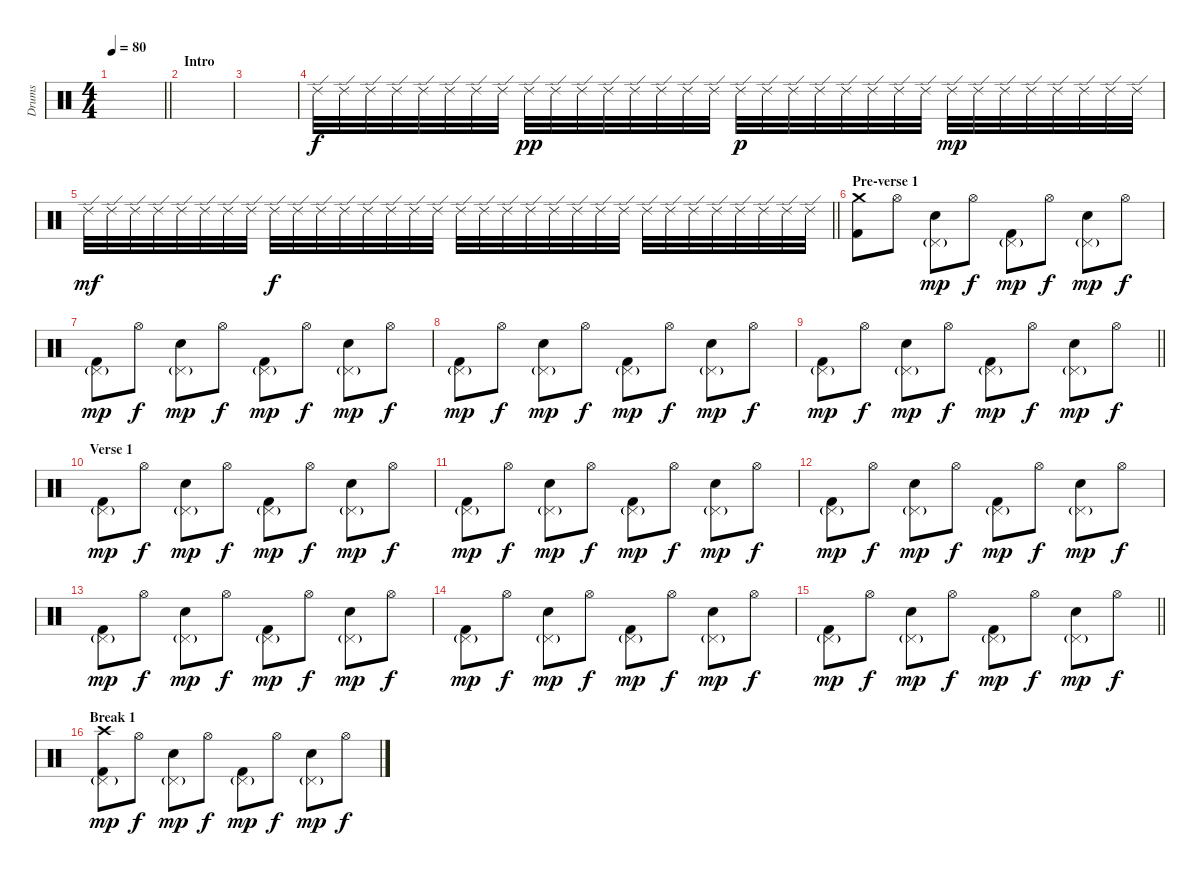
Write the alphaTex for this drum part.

\track ("Drums" "Drums") {solo instrument percussion}
\staff {score}
\articulation defaults
\ts (4 4)
\tempo 80
\clef neutral
\barLineRight lightlight
\ks c
|
\section ("" "Intro")
|
|
"Ride (edge) 2".32 "Ride (edge) 2".32 "Ride (edge) 2".32 "Ride (edge) 2".32 "Ride (edge) 2".32 "Ride (edge) 2".32 "Ride (edge) 2".32 "Ride (edge) 2".32 "Ride (edge) 2".32{dy pp} "Ride (edge) 2".32 "Ride (edge) 2".32 "Ride (edge) 2".32 "Ride (edge) 2".32 "Ride (edge) 2".32 "Ride (edge) 2".32 "Ride (edge) 2".32 "Ride (edge) 2".32{dy p} "Ride (edge) 2".32 "Ride (edge) 2".32 "Ride (edge) 2".32 "Ride (edge) 2".32 "Ride (edge) 2".32 "Ride (edge) 2".32 "Ride (edge) 2".32 "Ride (edge) 2".32{dy mp} "Ride (edge) 2".32 "Ride (edge) 2".32 "Ride (edge) 2".32 "Ride (edge) 2".32 "Ride (edge) 2".32 "Ride (edge) 2".32 "Ride (edge) 2".32 |
\barLineRight lightlight "Ride (edge) 2".32{dy mf} "Ride (edge) 2".32 "Ride (edge) 2".32 "Ride (edge) 2".32 "Ride (edge) 2".32 "Ride (edge) 2".32 "Ride (edge) 2".32 "Ride (edge) 2".32 "Ride (edge) 2".32{dy f} "Ride (edge) 2".32 "Ride (edge) 2".32 "Ride (edge) 2".32 "Ride (edge) 2".32 "Ride (edge) 2".32 "Ride (edge) 2".32 "Ride (edge) 2".32 "Ride (edge) 2".32 "Ride (edge) 2".32 "Ride (edge) 2".32 "Ride (edge) 2".32 "Ride (edge) 2".32 "Ride (edge) 2".32 "Ride (edge) 2".32 "Ride (edge) 2".32 "Ride (edge) 2".32 "Ride (edge) 2".32 "Ride (edge) 2".32 "Ride (edge) 2".32 "Ride (edge) 2".32 "Ride (edge) 2".32 "Ride (edge) 2".32 "Ride (edge) 2".32
|
\section ("" "Pre-verse 1")
("Crash medium (hit)" "Kick (hit) 2").8 "Hi-Hat (open)".8 ("Pedal Hi-Hat (hit)"{g} "Electric Snare (hit)").8{dy mp} "Hi-Hat (open)".8{dy f} ("Pedal Hi-Hat (hit)"{g} "Kick (hit) 2").8{dy mp} "Hi-Hat (open)".8{dy f} ("Pedal Hi-Hat (hit)"{g} "Electric Snare (hit)").8{dy mp} "Hi-Hat (open)".8{dy f} |
("Pedal Hi-Hat (hit)"{g} "Kick (hit) 2").8{dy mp} "Hi-Hat (open)".8{dy f} ("Pedal Hi-Hat (hit)"{g} "Electric Snare (hit)").8{dy mp} "Hi-Hat (open)".8{dy f} ("Pedal Hi-Hat (hit)"{g} "Kick (hit) 2").8{dy mp} "Hi-Hat (open)".8{dy f} ("Pedal Hi-Hat (hit)"{g} "Electric Snare (hit)").8{dy mp} "Hi-Hat (open)".8{dy f} |
("Pedal Hi-Hat (hit)"{g} "Kick (hit) 2").8{dy mp} "Hi-Hat (open)".8{dy f} ("Pedal Hi-Hat (hit)"{g} "Electric Snare (hit)").8{dy mp} "Hi-Hat (open)".8{dy f} ("Pedal Hi-Hat (hit)"{g} "Kick (hit) 2").8{dy mp} "Hi-Hat (open)".8{dy f} ("Pedal Hi-Hat (hit)"{g} "Electric Snare (hit)").8{dy mp} "Hi-Hat (open)".8{dy f} |
\barLineRight lightlight
("Pedal Hi-Hat (hit)"{g} "Kick (hit) 2").8{dy mp} "Hi-Hat (open)".8{dy f} ("Pedal Hi-Hat (hit)"{g} "Electric Snare (hit)").8{dy mp} "Hi-Hat (open)".8{dy f} ("Pedal Hi-Hat (hit)"{g} "Kick (hit) 2").8{dy mp} "Hi-Hat (open)".8{dy f} ("Pedal Hi-Hat (hit)"{g} "Electric Snare (hit)").8{dy mp} "Hi-Hat (open)".8{dy f} |
\section ("" "Verse 1")
("Pedal Hi-Hat (hit)"{g} "Kick (hit) 2").8{dy mp} "Hi-Hat (open)".8{dy f} ("Pedal Hi-Hat (hit)"{g} "Electric Snare (hit)").8{dy mp} "Hi-Hat (open)".8{dy f} ("Pedal Hi-Hat (hit)"{g} "Kick (hit) 2").8{dy mp} "Hi-Hat (open)".8{dy f} ("Pedal Hi-Hat (hit)"{g} "Electric Snare (hit)").8{dy mp} "Hi-Hat (open)".8{dy f} |
("Pedal Hi-Hat (hit)"{g} "Kick (hit) 2").8{dy mp} "Hi-Hat (open)".8{dy f} ("Pedal Hi-Hat (hit)"{g} "Electric Snare (hit)").8{dy mp} "Hi-Hat (open)".8{dy f} ("Pedal Hi-Hat (hit)"{g} "Kick (hit) 2").8{dy mp} "Hi-Hat (open)".8{dy f} ("Pedal Hi-Hat (hit)"{g} "Electric Snare (hit)").8{dy mp} "Hi-Hat (open)".8{dy f} |
("Pedal Hi-Hat (hit)"{g} "Kick (hit) 2").8{dy mp} "Hi-Hat (open)".8{dy f} ("Pedal Hi-Hat (hit)"{g} "Electric Snare (hit)").8{dy mp} "Hi-Hat (open)".8{dy f} ("Pedal Hi-Hat (hit)"{g} "Kick (hit) 2").8{dy mp} "Hi-Hat (open)".8{dy f} ("Pedal Hi-Hat (hit)"{g} "Electric Snare (hit)").8{dy mp} "Hi-Hat (open)".8{dy f} |
("Pedal Hi-Hat (hit)"{g} "Kick (hit) 2").8{dy mp} "Hi-Hat (open)".8{dy f} ("Pedal Hi-Hat (hit)"{g} "Electric Snare (hit)").8{dy mp} "Hi-Hat (open)".8{dy f} ("Pedal Hi-Hat (hit)"{g} "Kick (hit) 2").8{dy mp} "Hi-Hat (open)".8{dy f} ("Pedal Hi-Hat (hit)"{g} "Electric Snare (hit)").8{dy mp} "Hi-Hat (open)".8{dy f} |
("Pedal Hi-Hat (hit)"{g} "Kick (hit) 2").8{dy mp} "Hi-Hat (open)".8{dy f} ("Pedal Hi-Hat (hit)"{g} "Electric Snare (hit)").8{dy mp} "Hi-Hat (open)".8{dy f} ("Pedal Hi-Hat (hit)"{g} "Kick (hit) 2").8{dy mp} "Hi-Hat (open)".8{dy f} ("Pedal Hi-Hat (hit)"{g} "Electric Snare (hit)").8{dy mp} "Hi-Hat (open)".8{dy f} |
\barLineRight lightlight
("Pedal Hi-Hat (hit)"{g} "Kick (hit) 2").8{dy mp} "Hi-Hat (open)".8{dy f} ("Pedal Hi-Hat (hit)"{g} "Electric Snare (hit)").8{dy mp} "Hi-Hat (open)".8{dy f} ("Pedal Hi-Hat (hit)"{g} "Kick (hit) 2").8{dy mp} "Hi-Hat (open)".8{dy f} ("Pedal Hi-Hat (hit)"{g} "Electric Snare (hit)").8{dy mp} "Hi-Hat (open)".8{dy f} |
\section ("" "Break 1")
("Pedal Hi-Hat (hit)"{g} "Crash high (hit)" "Kick (hit) 2").8{dy mp} "Hi-Hat (open)".8{dy f} ("Pedal Hi-Hat (hit)"{g} "Electric Snare (hit)").8{dy mp} "Hi-Hat (open)".8{dy f} ("Pedal Hi-Hat (hit)"{g} "Kick (hit) 2").8{dy mp} "Hi-Hat (open)".8{dy f} ("Pedal Hi-Hat (hit)"{g} "Electric Snare (hit)").8{dy mp} "Hi-Hat (open)".8{dy f}
